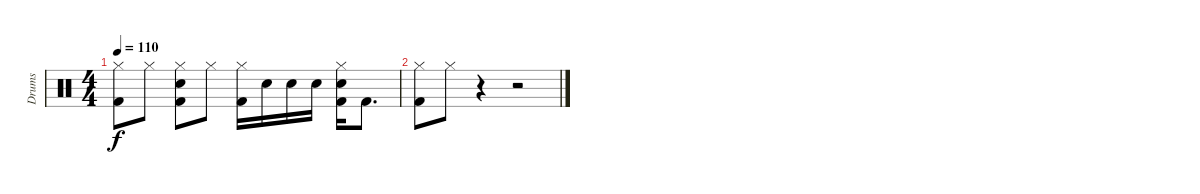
\track ("Drums" "Drums") {instrument percussion}
\staff {score}
\articulation defaults
\ts (4 4)
\tempo 110
\clef neutral
\ks c
("Hi-Hat (closed)" "Kick (hit) 2").8{dy f} "Hi-Hat (closed)".8 ("Hi-Hat (closed)" "Snare (hit) 2" "Kick (hit) 2").8 "Hi-Hat (closed)".8 ("Hi-Hat (closed)" "Kick (hit) 2").16 "Snare (hit) 2".16 "Snare (hit) 2".16 "Snare (hit) 2".16 ("Hi-Hat (closed)" "Snare (hit) 2" "Kick (hit) 2").16 "Kick (hit) 2".8{d} |
("Hi-Hat (closed)" "Kick (hit) 2").8 "Hi-Hat (closed)".8 r.4 r.2
